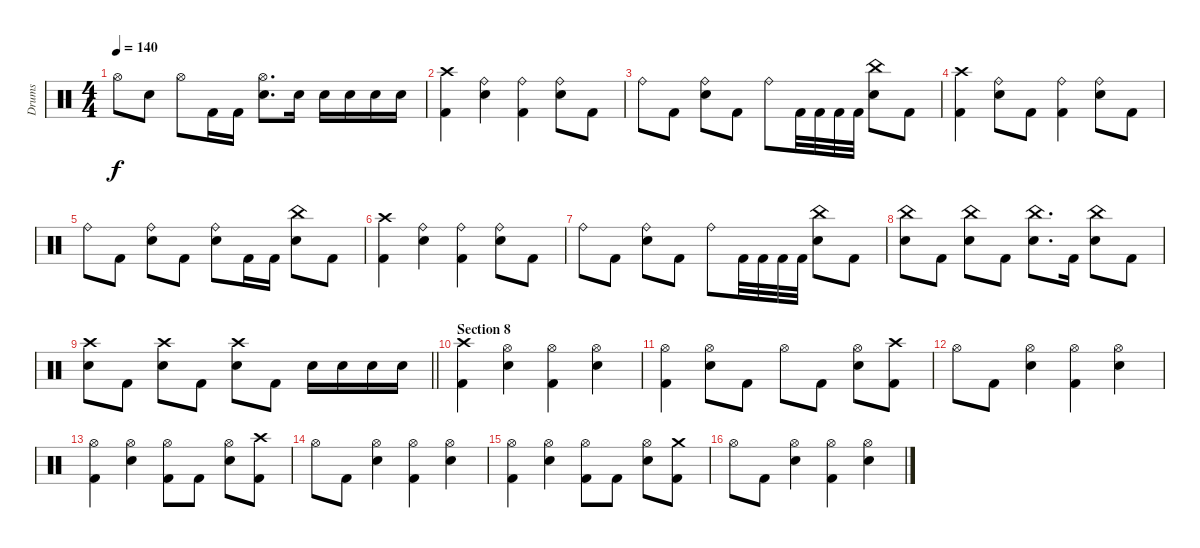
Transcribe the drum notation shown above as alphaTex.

\track ("Drums" "Drums") {instrument percussion}
\staff {score}
\articulation defaults
\ts (4 4)
\tempo 140
\clef neutral
\ks c "Hi-Hat (open)".8{dy f} "Snare (hit) 2".8 "Hi-Hat (open)".8 "Kick (hit) 2".16 "Kick (hit) 2".16
("Hi-Hat (open)" "Snare (hit) 2").8{d} "Snare (hit) 2".16 "Snare (hit) 2".16 "Snare (hit) 2".16 "Snare (hit) 2".16 "Snare (hit) 2".16 |
("Crash high (hit)" "Kick (hit) 2").4 ("Ride (bell)" "Snare (hit) 2").4 ("Ride (bell)" "Kick (hit) 2").4 ("Ride (bell)" "Snare (hit) 2").8 "Kick (hit) 2".8 |
"Ride (bell)".8 "Kick (hit) 2".8 ("Ride (bell)" "Snare (hit) 2").8 "Kick (hit) 2".8 "Ride (bell)".8 "Kick (hit) 2".32 "Kick (hit) 2".32 "Kick (hit) 2".32 "Kick (hit) 2".32 ("China (hit)" "Snare (hit) 2").8 "Kick (hit) 2".8 |
("Crash high (hit)" "Kick (hit) 2").4 ("Ride (bell)" "Snare (hit) 2").8 "Kick (hit) 2".8 ("Ride (bell)" "Kick (hit) 2").4 ("Ride (bell)" "Snare (hit) 2").8 "Kick (hit) 2".8 |
"Ride (bell)".8 "Kick (hit) 2".8 ("Ride (bell)" "Snare (hit) 2").8 "Kick (hit) 2".8 ("Ride (bell)" "Snare (hit) 2").8 "Kick (hit) 2".16 "Kick (hit) 2".16 ("China (hit)" "Snare (hit) 2").8 "Kick (hit) 2".8 |
("Crash high (hit)" "Kick (hit) 2").4 ("Ride (bell)" "Snare (hit) 2").4 ("Ride (bell)" "Kick (hit) 2").4 ("Ride (bell)" "Snare (hit) 2").8 "Kick (hit) 2".8 |
"Ride (bell)".8 "Kick (hit) 2".8 ("Ride (bell)" "Snare (hit) 2").8 "Kick (hit) 2".8 "Ride (bell)".8 "Kick (hit) 2".32 "Kick (hit) 2".32 "Kick (hit) 2".32 "Kick (hit) 2".32 ("China (hit)" "Snare (hit) 2").8 "Kick (hit) 2".8 |
("China (hit)" "Snare (hit) 2").8 "Kick (hit) 2".8 ("China (hit)" "Snare (hit) 2").8 "Kick (hit) 2".8 ("China (hit)" "Snare (hit) 2").8{d} "Kick (hit) 2".16 ("China (hit)" "Snare (hit) 2").8 "Kick (hit) 2".8 |
\barLineRight lightlight
("Crash high (hit)" "Snare (hit) 2").8 "Kick (hit) 2".8 ("Crash high (hit)" "Snare (hit) 2").8 "Kick (hit) 2".8 ("Crash high (hit)" "Snare (hit) 2").8 "Kick (hit) 2".8 "Snare (hit) 2".16 "Snare (hit) 2".16 "Snare (hit) 2".16 "Snare (hit) 2".16 |
\section ("" "Section 8")
("Crash high (hit)" "Kick (hit) 2").4 ("Hi-Hat (open)" "Snare (hit) 2").4 ("Hi-Hat (open)" "Kick (hit) 2").4 ("Hi-Hat (open)" "Snare (hit) 2").4 |
("Hi-Hat (open)" "Kick (hit) 2").4 ("Hi-Hat (open)" "Snare (hit) 2").8 "Kick (hit) 2".8 "Hi-Hat (open)".8 "Kick (hit) 2".8 ("Hi-Hat (open)" "Snare (hit) 2").8 ("Crash high (hit)" "Kick (hit) 2").8 |
"Hi-Hat (open)".8 "Kick (hit) 2".8 ("Hi-Hat (open)" "Snare (hit) 2").4 ("Hi-Hat (open)" "Kick (hit) 2").4 ("Hi-Hat (open)" "Snare (hit) 2").4 |
("Hi-Hat (open)" "Kick (hit) 2").4 ("Hi-Hat (open)" "Snare (hit) 2").4 ("Hi-Hat (open)" "Kick (hit) 2").8 "Kick (hit) 2".8 ("Hi-Hat (open)" "Snare (hit) 2").8 ("Crash high (hit)" "Kick (hit) 2").8 |
"Hi-Hat (open)".8 "Kick (hit) 2".8 ("Hi-Hat (open)" "Snare (hit) 2").4 ("Hi-Hat (open)" "Kick (hit) 2").4 ("Hi-Hat (open)" "Snare (hit) 2").4 |
("Hi-Hat (open)" "Kick (hit) 2").4 ("Hi-Hat (open)" "Snare (hit) 2").4 ("Hi-Hat (open)" "Kick (hit) 2").8 "Kick (hit) 2".8 ("Hi-Hat (open)" "Snare (hit) 2").8 ("Crash medium (hit)" "Kick (hit) 2").8 |
"Hi-Hat (open)".8 "Kick (hit) 2".8 ("Hi-Hat (open)" "Snare (hit) 2").4 ("Hi-Hat (open)" "Kick (hit) 2").4 ("Hi-Hat (open)" "Snare (hit) 2").4
